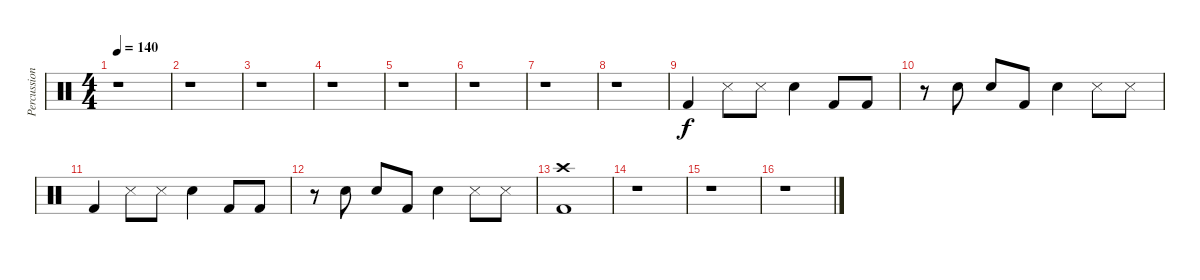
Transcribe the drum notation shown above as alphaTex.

\track ("Percussions" "Percussion") {instrument percussion}
\staff {score}
\articulation defaults
\ts (4 4)
\tempo 140
\clef neutral
\ks c
r.1{dy f} |
r.1 |
r.1 |
r.1 |
r.1 |
r.1 |
r.1 |
r.1 |
"Kick (hit) 2".4 "Snare (side stick) 3".8 "Snare (side stick) 3".8 "Electric Snare (hit)".4 "Kick (hit) 2".8 "Kick (hit) 2".8 |
r.8 "Electric Snare (hit)".8 "Snare (hit) 2".8 "Kick (hit) 2".8 "Electric Snare (hit)".4 "Snare (side stick) 3".8 "Snare (side stick) 3".8 |
"Kick (hit) 2".4 "Snare (side stick) 3".8 "Snare (side stick) 3".8 "Electric Snare (hit)".4 "Kick (hit) 2".8 "Kick (hit) 2".8 |
r.8 "Electric Snare (hit)".8 "Snare (hit) 2".8 "Kick (hit) 2".8 "Electric Snare (hit)".4 "Snare (side stick) 3".8 "Snare (side stick) 3".8 |
("Crash high (hit)" "Kick (hit) 2").1 |
r.1 |
r.1 |
r.1
